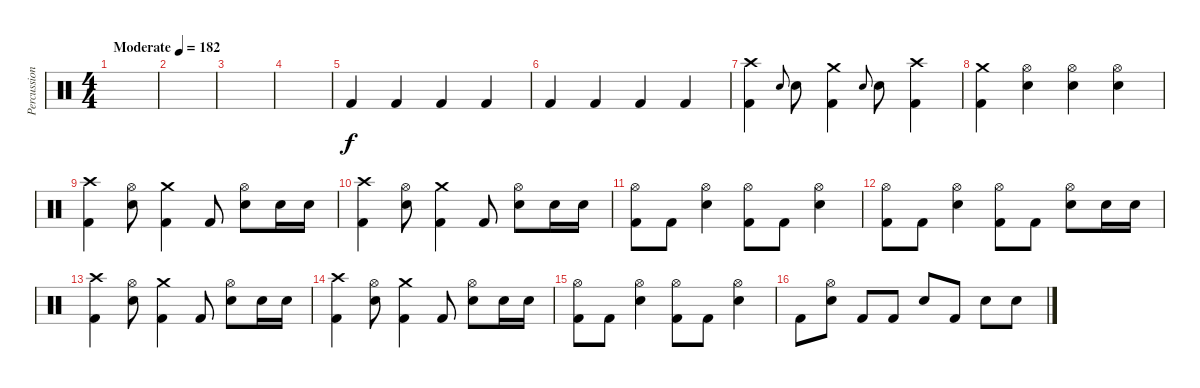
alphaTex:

\track ("Percussion" "Percussion") {instrument percussion}
\staff {score}
\articulation defaults
\ts (4 4)
\tempo (182 "Moderate")
\clef neutral
\ks c
|
|
|
|
"Kick (hit) 2".4 "Kick (hit) 2".4 "Kick (hit) 2".4 "Kick (hit) 2".4 |
"Kick (hit) 2".4 "Kick (hit) 2".4 "Kick (hit) 2".4 "Kick (hit) 2".4 |
("Crash high (hit)" "Kick (hit) 2").4 "Electric Snare (hit)".8{gr onbeat} "Electric Snare (hit)".8 ("Crash medium (hit)" "Kick (hit) 2").4 "Electric Snare (hit)".8{gr onbeat} "Electric Snare (hit)".8 ("Crash high (hit)" "Kick (hit) 2").4 |
("Crash medium (hit)" "Kick (hit) 2").4 ("Hi-Hat (open)" "Electric Snare (hit)").4 ("Hi-Hat (open)" "Electric Snare (hit)").4 ("Hi-Hat (open)" "Electric Snare (hit)").4 |
("Crash high (hit)" "Kick (hit) 2").4 ("Hi-Hat (open)" "Electric Snare (hit)").8 ("Crash medium (hit)" "Kick (hit) 2").4 "Kick (hit) 2".8 ("Hi-Hat (open)" "Electric Snare (hit)").8 "Electric Snare (hit)".16 "Electric Snare (hit)".16 |
("Crash high (hit)" "Kick (hit) 2").4 ("Hi-Hat (open)" "Electric Snare (hit)").8 ("Crash medium (hit)" "Kick (hit) 2").4 "Kick (hit) 2".8 ("Hi-Hat (open)" "Electric Snare (hit)").8 "Electric Snare (hit)".16 "Electric Snare (hit)".16 |
("Hi-Hat (open)" "Kick (hit) 2").8 "Kick (hit) 2".8 ("Hi-Hat (open)" "Electric Snare (hit)").4 ("Hi-Hat (open)" "Kick (hit) 2").8 "Kick (hit) 2".8 ("Hi-Hat (open)" "Electric Snare (hit)").4 |
("Hi-Hat (open)" "Kick (hit) 2").8 "Kick (hit) 2".8 ("Hi-Hat (open)" "Electric Snare (hit)").4 ("Hi-Hat (open)" "Kick (hit) 2").8 "Kick (hit) 2".8 ("Hi-Hat (open)" "Electric Snare (hit)").8 "Electric Snare (hit)".16 "Electric Snare (hit)".16 |
("Crash high (hit)" "Kick (hit) 2").4 ("Hi-Hat (open)" "Electric Snare (hit)").8 ("Crash medium (hit)" "Kick (hit) 2").4 "Kick (hit) 2".8 ("Hi-Hat (open)" "Electric Snare (hit)").8 "Electric Snare (hit)".16 "Electric Snare (hit)".16 |
("Crash high (hit)" "Kick (hit) 2").4 ("Hi-Hat (open)" "Electric Snare (hit)").8 ("Crash medium (hit)" "Kick (hit) 2").4 "Kick (hit) 2".8 ("Hi-Hat (open)" "Electric Snare (hit)").8 "Electric Snare (hit)".16 "Electric Snare (hit)".16 |
("Hi-Hat (open)" "Kick (hit) 2").8 "Kick (hit) 2".8 ("Hi-Hat (open)" "Electric Snare (hit)").4 ("Hi-Hat (open)" "Kick (hit) 2").8 "Kick (hit) 2".8 ("Hi-Hat (open)" "Electric Snare (hit)").4 |
"Kick (hit) 2".8 ("Hi-Hat (open)" "Electric Snare (hit)").8 "Kick (hit) 2".8 "Kick (hit) 2".8 "Electric Snare (hit)".8 "Kick (hit) 2".8 "Electric Snare (hit)".8 "Electric Snare (hit)".8
